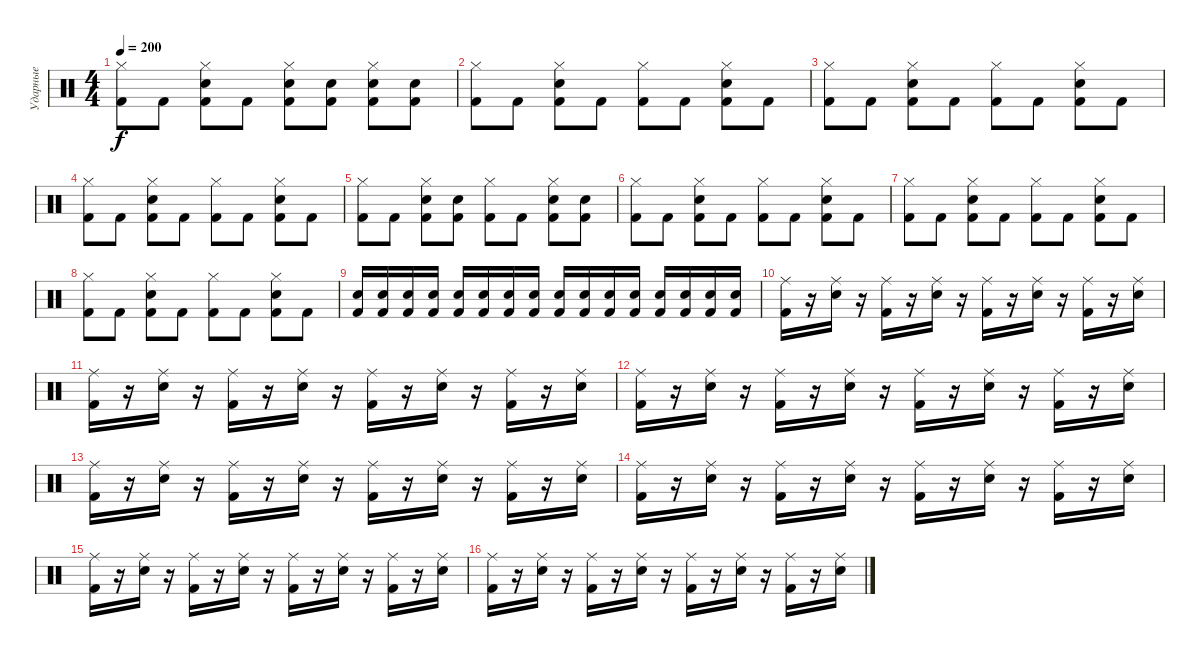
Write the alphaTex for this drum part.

\track ("Ударные" "Ударные") {instrument percussion}
\staff {score}
\articulation defaults
\ts (4 4)
\tempo 200
\clef neutral
\ks c
("Hi-Hat (closed)" "Kick (hit) 2").8{dy f} "Kick (hit) 2".8 ("Hi-Hat (closed)" "Snare (hit) 2" "Kick (hit) 2").8 "Kick (hit) 2".8 ("Hi-Hat (closed)" "Snare (hit) 2" "Kick (hit) 2").8 ("Snare (hit) 2" "Kick (hit) 2").8 ("Hi-Hat (closed)" "Snare (hit) 2" "Kick (hit) 2").8 ("Snare (hit) 2" "Kick (hit) 2").8 |
("Hi-Hat (closed)" "Kick (hit) 2").8 "Kick (hit) 2".8 ("Hi-Hat (closed)" "Snare (hit) 2" "Kick (hit) 2").8 "Kick (hit) 2".8 ("Hi-Hat (closed)" "Kick (hit) 2").8 "Kick (hit) 2".8 ("Hi-Hat (closed)" "Snare (hit) 2" "Kick (hit) 2").8 "Kick (hit) 2".8 |
("Hi-Hat (closed)" "Kick (hit) 2").8 "Kick (hit) 2".8 ("Hi-Hat (closed)" "Snare (hit) 2" "Kick (hit) 2").8 "Kick (hit) 2".8 ("Hi-Hat (closed)" "Kick (hit) 2").8 "Kick (hit) 2".8 ("Hi-Hat (closed)" "Snare (hit) 2" "Kick (hit) 2").8 "Kick (hit) 2".8 |
("Hi-Hat (closed)" "Kick (hit) 2").8 "Kick (hit) 2".8 ("Hi-Hat (closed)" "Snare (hit) 2" "Kick (hit) 2").8 "Kick (hit) 2".8 ("Hi-Hat (closed)" "Kick (hit) 2").8 "Kick (hit) 2".8 ("Hi-Hat (closed)" "Snare (hit) 2" "Kick (hit) 2").8 "Kick (hit) 2".8 |
("Hi-Hat (closed)" "Kick (hit) 2").8 "Kick (hit) 2".8 ("Hi-Hat (closed)" "Snare (hit) 2" "Kick (hit) 2").8 ("Snare (hit) 2" "Kick (hit) 2").8 ("Hi-Hat (closed)" "Kick (hit) 2").8 "Kick (hit) 2".8 ("Hi-Hat (closed)" "Snare (hit) 2" "Kick (hit) 2").8 ("Snare (hit) 2" "Kick (hit) 2").8 |
("Hi-Hat (closed)" "Kick (hit) 2").8 "Kick (hit) 2".8 ("Hi-Hat (closed)" "Snare (hit) 2" "Kick (hit) 2").8 "Kick (hit) 2".8 ("Hi-Hat (closed)" "Kick (hit) 2").8 "Kick (hit) 2".8 ("Hi-Hat (closed)" "Snare (hit) 2" "Kick (hit) 2").8 "Kick (hit) 2".8 |
("Hi-Hat (closed)" "Kick (hit) 2").8 "Kick (hit) 2".8 ("Hi-Hat (closed)" "Snare (hit) 2" "Kick (hit) 2").8 "Kick (hit) 2".8 ("Hi-Hat (closed)" "Kick (hit) 2").8 "Kick (hit) 2".8 ("Hi-Hat (closed)" "Snare (hit) 2" "Kick (hit) 2").8 "Kick (hit) 2".8 |
("Hi-Hat (closed)" "Kick (hit) 2").8 "Kick (hit) 2".8 ("Hi-Hat (closed)" "Snare (hit) 2" "Kick (hit) 2").8 "Kick (hit) 2".8 ("Hi-Hat (closed)" "Kick (hit) 2").8 "Kick (hit) 2".8 ("Hi-Hat (closed)" "Snare (hit) 2" "Kick (hit) 2").8 "Kick (hit) 2".8 |
("Snare (hit) 2" "Kick (hit) 2").16 ("Snare (hit) 2" "Kick (hit) 2").16 ("Snare (hit) 2" "Kick (hit) 2").16 ("Snare (hit) 2" "Kick (hit) 2").16 ("Snare (hit) 2" "Kick (hit) 2").16 ("Snare (hit) 2" "Kick (hit) 2").16 ("Snare (hit) 2" "Kick (hit) 2").16 ("Snare (hit) 2" "Kick (hit) 2").16 ("Snare (hit) 2" "Kick (hit) 2").16 ("Snare (hit) 2" "Kick (hit) 2").16 ("Snare (hit) 2" "Kick (hit) 2").16 ("Snare (hit) 2" "Kick (hit) 2").16 ("Snare (hit) 2" "Kick (hit) 2").16 ("Snare (hit) 2" "Kick (hit) 2").16 ("Snare (hit) 2" "Kick (hit) 2").16 ("Snare (hit) 2" "Kick (hit) 2").16 |
("Ride (middle)" "Kick (hit) 2").16 r.16 ("Ride (middle)" "Snare (hit) 2").16 r.16 ("Ride (middle)" "Kick (hit) 2").16 r.16 ("Ride (middle)" "Snare (hit) 2").16 r.16 ("Ride (middle)" "Kick (hit) 2").16 r.16 ("Ride (middle)" "Snare (hit) 2").16 r.16 ("Ride (middle)" "Kick (hit) 2").16 r.16 ("Ride (middle)" "Snare (hit) 2").16 |
("Ride (middle)" "Kick (hit) 2").16 r.16 ("Ride (middle)" "Snare (hit) 2").16 r.16 ("Ride (middle)" "Kick (hit) 2").16 r.16 ("Ride (middle)" "Snare (hit) 2").16 r.16 ("Ride (middle)" "Kick (hit) 2").16 r.16 ("Ride (middle)" "Snare (hit) 2").16 r.16 ("Ride (middle)" "Kick (hit) 2").16 r.16 ("Ride (middle)" "Snare (hit) 2").16 |
("Ride (middle)" "Kick (hit) 2").16 r.16 ("Ride (middle)" "Snare (hit) 2").16 r.16 ("Ride (middle)" "Kick (hit) 2").16 r.16 ("Ride (middle)" "Snare (hit) 2").16 r.16 ("Ride (middle)" "Kick (hit) 2").16 r.16 ("Ride (middle)" "Snare (hit) 2").16 r.16 ("Ride (middle)" "Kick (hit) 2").16 r.16 ("Ride (middle)" "Snare (hit) 2").16 |
("Ride (middle)" "Kick (hit) 2").16 r.16 ("Ride (middle)" "Snare (hit) 2").16 r.16 ("Ride (middle)" "Kick (hit) 2").16 r.16 ("Ride (middle)" "Snare (hit) 2").16 r.16 ("Ride (middle)" "Kick (hit) 2").16 r.16 ("Ride (middle)" "Snare (hit) 2").16 r.16 ("Ride (middle)" "Kick (hit) 2").16 r.16 ("Ride (middle)" "Snare (hit) 2").16 |
("Ride (middle)" "Kick (hit) 2").16 r.16 ("Ride (middle)" "Snare (hit) 2").16 r.16 ("Ride (middle)" "Kick (hit) 2").16 r.16 ("Ride (middle)" "Snare (hit) 2").16 r.16 ("Ride (middle)" "Kick (hit) 2").16 r.16 ("Ride (middle)" "Snare (hit) 2").16 r.16 ("Ride (middle)" "Kick (hit) 2").16 r.16 ("Ride (middle)" "Snare (hit) 2").16 |
("Ride (middle)" "Kick (hit) 2").16 r.16 ("Ride (middle)" "Snare (hit) 2").16 r.16 ("Ride (middle)" "Kick (hit) 2").16 r.16 ("Ride (middle)" "Snare (hit) 2").16 r.16 ("Ride (middle)" "Kick (hit) 2").16 r.16 ("Ride (middle)" "Snare (hit) 2").16 r.16 ("Ride (middle)" "Kick (hit) 2").16 r.16 ("Ride (middle)" "Snare (hit) 2").16 |
("Ride (middle)" "Kick (hit) 2").16 r.16 ("Ride (middle)" "Snare (hit) 2").16 r.16 ("Ride (middle)" "Kick (hit) 2").16 r.16 ("Ride (middle)" "Snare (hit) 2").16 r.16 ("Ride (middle)" "Kick (hit) 2").16 r.16 ("Ride (middle)" "Snare (hit) 2").16 r.16 ("Ride (middle)" "Kick (hit) 2").16 r.16 ("Ride (middle)" "Snare (hit) 2").16
